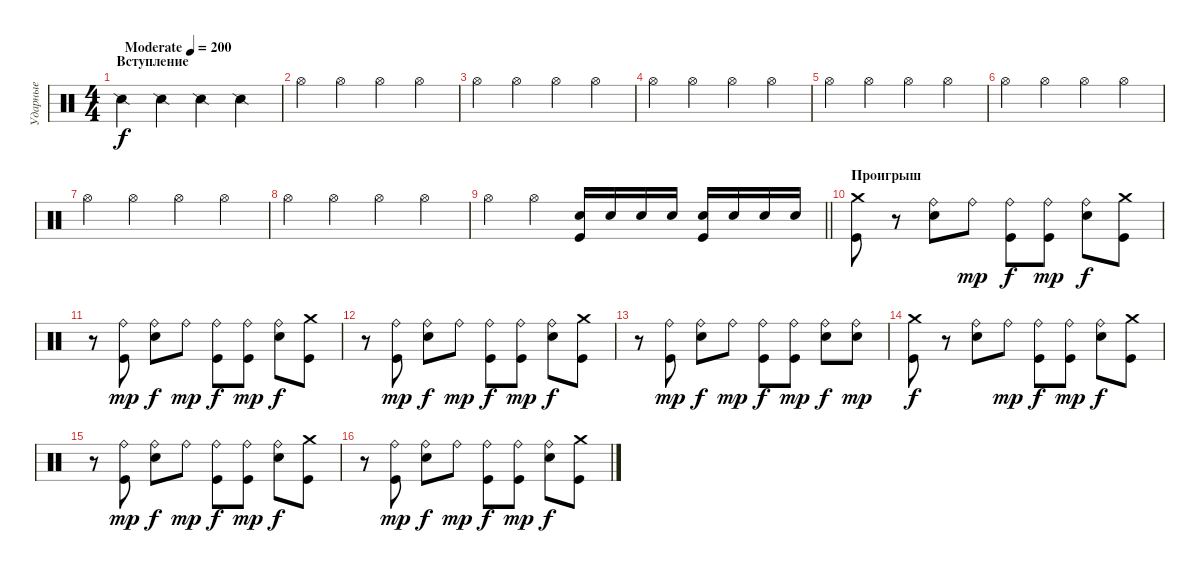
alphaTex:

\track ("Ударные" "Ударные") {instrument percussion}
\staff {score}
\articulation defaults
\ts (4 4)
\section ("" "Вступление")
\tempo (200 "Moderate")
\clef neutral
\ks c "Snare (side stick) 2".4{dy f} "Snare (side stick) 2".4 "Snare (side stick) 2".4 "Snare (side stick) 2".4
|
"Hi-Hat (open)".4 "Hi-Hat (open)".4 "Hi-Hat (open)".4 "Hi-Hat (open)".4 |
"Hi-Hat (open)".4 "Hi-Hat (open)".4 "Hi-Hat (open)".4 "Hi-Hat (open)".4 |
"Hi-Hat (open)".4 "Hi-Hat (open)".4 "Hi-Hat (open)".4 "Hi-Hat (open)".4 |
"Hi-Hat (open)".4 "Hi-Hat (open)".4 "Hi-Hat (open)".4 "Hi-Hat (open)".4 |
"Hi-Hat (open)".4 "Hi-Hat (open)".4 "Hi-Hat (open)".4 "Hi-Hat (open)".4 |
"Hi-Hat (open)".4 "Hi-Hat (open)".4 "Hi-Hat (open)".4 "Hi-Hat (open)".4 |
"Hi-Hat (open)".4 "Hi-Hat (open)".4 "Hi-Hat (open)".4 "Hi-Hat (open)".4 |
\barLineRight lightlight "Hi-Hat (open)".4 "Hi-Hat (open)".4
("Electric Snare (hit)" "Kick (hit)").16 "Electric Snare (hit)".16 "Electric Snare (hit)".16 "Electric Snare (hit)".16 ("Electric Snare (hit)" "Kick (hit)").16 "Electric Snare (hit)".16 "Electric Snare (hit)".16 "Electric Snare (hit)".16 |
\section ("" "Проигрыш")
("Crash medium (hit)" "Kick (hit)").8 r.8 ("Ride (bell)" "Electric Snare (hit)").8 "Ride (bell)".8{dy mp} ("Ride (bell)" "Kick (hit)").8{dy f} ("Ride (bell)" "Kick (hit)").8{dy mp} ("Ride (bell)" "Electric Snare (hit)").8{dy f} ("Crash medium (hit)" "Kick (hit)").8 |
r.8 ("Ride (bell)" "Kick (hit)").8{dy mp} ("Ride (bell)" "Electric Snare (hit)").8{dy f} "Ride (bell)".8{dy mp} ("Ride (bell)" "Kick (hit)").8{dy f} ("Ride (bell)" "Kick (hit)").8{dy mp} ("Ride (bell)" "Electric Snare (hit)").8{dy f} ("Crash medium (hit)" "Kick (hit)").8 |
r.8 ("Ride (bell)" "Kick (hit)").8{dy mp} ("Ride (bell)" "Electric Snare (hit)").8{dy f} "Ride (bell)".8{dy mp} ("Ride (bell)" "Kick (hit)").8{dy f} ("Ride (bell)" "Kick (hit)").8{dy mp} ("Ride (bell)" "Electric Snare (hit)").8{dy f} ("Crash medium (hit)" "Kick (hit)").8 |
r.8 ("Ride (bell)" "Kick (hit)").8{dy mp} ("Ride (bell)" "Electric Snare (hit)").8{dy f} "Ride (bell)".8{dy mp} ("Ride (bell)" "Kick (hit)").8{dy f} ("Ride (bell)" "Kick (hit)").8{dy mp} ("Ride (bell)" "Electric Snare (hit)").8{dy f} ("Ride (bell)" "Electric Snare (hit)").8{dy mp} |
("Crash medium (hit)" "Kick (hit)").8{dy f} r.8 ("Ride (bell)" "Electric Snare (hit)").8 "Ride (bell)".8{dy mp} ("Ride (bell)" "Kick (hit)").8{dy f} ("Ride (bell)" "Kick (hit)").8{dy mp} ("Ride (bell)" "Electric Snare (hit)").8{dy f} ("Crash medium (hit)" "Kick (hit)").8 |
r.8 ("Ride (bell)" "Kick (hit)").8{dy mp} ("Ride (bell)" "Electric Snare (hit)").8{dy f} "Ride (bell)".8{dy mp} ("Ride (bell)" "Kick (hit)").8{dy f} ("Ride (bell)" "Kick (hit)").8{dy mp} ("Ride (bell)" "Electric Snare (hit)").8{dy f} ("Crash medium (hit)" "Kick (hit)").8 |
r.8 ("Ride (bell)" "Kick (hit)").8{dy mp} ("Ride (bell)" "Electric Snare (hit)").8{dy f} "Ride (bell)".8{dy mp} ("Ride (bell)" "Kick (hit)").8{dy f} ("Ride (bell)" "Kick (hit)").8{dy mp} ("Ride (bell)" "Electric Snare (hit)").8{dy f} ("Crash medium (hit)" "Kick (hit)").8
